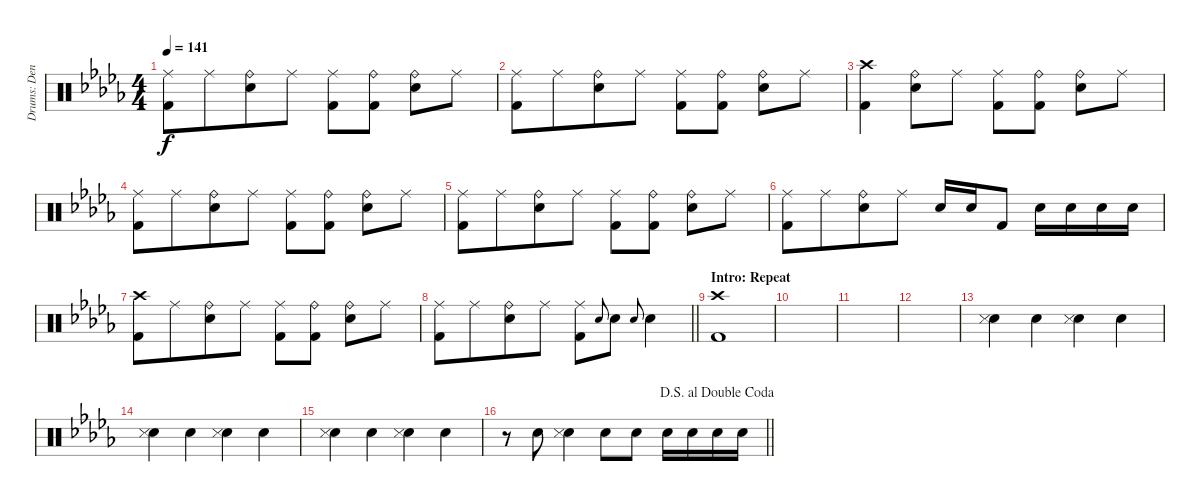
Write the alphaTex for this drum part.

\track ("Drums: Denny" "Drums: Den") {instrument percussion}
\staff {score}
\articulation defaults
\ts (4 4)
\tempo 141
\clef neutral
\ks db
("Ride (middle)" "Kick (hit) 2").8{dy f} "Ride (middle)".8{beam merge} ("Ride (bell)" "Snare (hit) 2").8 "Ride (middle)".8 ("Ride (middle)" "Kick (hit) 2").8 ("Ride (bell)" "Kick (hit) 2").8 ("Ride (bell)" "Snare (hit) 2").8 "Ride (middle)".8 |
("Ride (middle)" "Kick (hit) 2").8 "Ride (middle)".8{beam merge} ("Ride (bell)" "Snare (hit) 2").8 "Ride (middle)".8 ("Ride (middle)" "Kick (hit) 2").8 ("Ride (bell)" "Kick (hit) 2").8 ("Ride (bell)" "Snare (hit) 2").8 "Ride (middle)".8 |
("Crash high (hit)" "Kick (hit) 2").4{beam merge} ("Ride (bell)" "Snare (hit) 2").8 "Ride (middle)".8 ("Ride (middle)" "Kick (hit) 2").8 ("Ride (bell)" "Kick (hit) 2").8 ("Ride (bell)" "Snare (hit) 2").8 "Ride (middle)".8 |
("Ride (middle)" "Kick (hit) 2").8 "Ride (middle)".8{beam merge} ("Ride (bell)" "Snare (hit) 2").8 "Ride (middle)".8 ("Ride (middle)" "Kick (hit) 2").8 ("Ride (bell)" "Kick (hit) 2").8 ("Ride (bell)" "Snare (hit) 2").8 "Ride (middle)".8 |
("Ride (middle)" "Kick (hit) 2").8 "Ride (middle)".8{beam merge} ("Ride (bell)" "Snare (hit) 2").8 "Ride (middle)".8 ("Ride (middle)" "Kick (hit) 2").8 ("Ride (bell)" "Kick (hit) 2").8 ("Ride (bell)" "Snare (hit) 2").8 "Ride (middle)".8 |
("Ride (middle)" "Kick (hit) 2").8 "Ride (middle)".8{beam merge} ("Ride (bell)" "Snare (hit) 2").8 "Ride (middle)".8 "Snare (hit) 2".16 "Snare (hit) 2".16 "Kick (hit) 2".8 "Snare (hit) 2".16 "Snare (hit) 2".16 "Snare (hit) 2".16 "Snare (hit) 2".16 |
("Crash high (hit)" "Kick (hit) 2").8 "Ride (middle)".8{beam merge} ("Ride (bell)" "Snare (hit) 2").8 "Ride (middle)".8 ("Ride (middle)" "Kick (hit) 2").8 ("Ride (bell)" "Kick (hit) 2").8 ("Ride (bell)" "Snare (hit) 2").8 "Ride (middle)".8 |
\barLineRight lightlight
("Ride (middle)" "Kick (hit) 2").8 "Ride (middle)".8{beam merge} ("Ride (bell)" "Snare (hit) 2").8 "Ride (middle)".8 ("Ride (middle)" "Kick (hit) 2").8 "Electric Snare (hit)".8{gr onbeat} "Snare (hit) 2".8 "Electric Snare (hit)".8{gr onbeat} "Snare (hit) 2".4 |
\section ("" "Intro: Repeat")
("Crash high (hit)" "Kick (hit) 2").1 |
|
|
|
("Snare (hit) 2" "Snare (side stick) 3").4 "Snare (hit) 2".4 ("Snare (hit) 2" "Snare (side stick) 3").4 "Snare (hit) 2".4 |
("Snare (hit) 2" "Snare (side stick) 3").4 "Snare (hit) 2".4 ("Snare (hit) 2" "Snare (side stick) 3").4 "Snare (hit) 2".4 |
("Snare (hit) 2" "Snare (side stick) 3").4 "Snare (hit) 2".4 ("Snare (hit) 2" "Snare (side stick) 3").4 "Snare (hit) 2".4 |
\jump dalsegnoaldoublecoda
\barLineRight lightlight
r.8 "Snare (hit) 2".8 ("Snare (hit) 2" "Snare (side stick) 3").4 "Snare (hit) 2".8 "Snare (hit) 2".8 "Snare (hit) 2".16 "Snare (hit) 2".16 "Snare (hit) 2".16 "Snare (hit) 2".16
